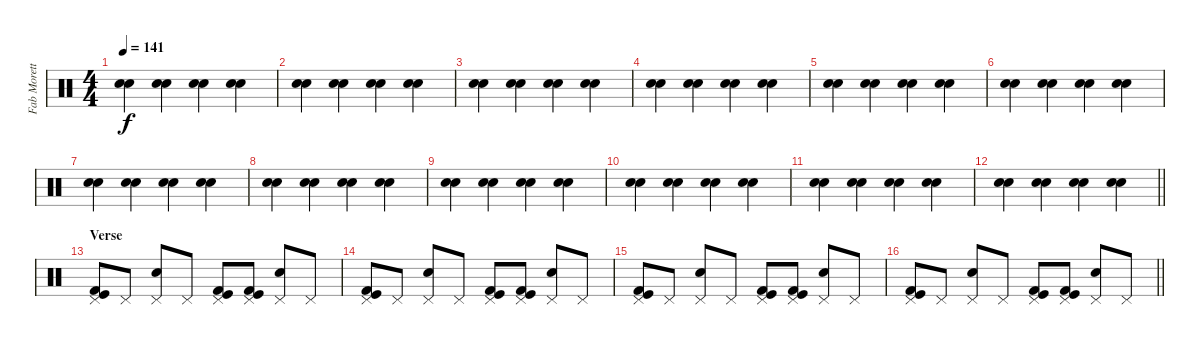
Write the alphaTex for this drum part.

\track ("Fab Moretti - Drums" "Fab Morett") {instrument percussion}
\staff {score}
\articulation defaults
\ts (4 4)
\tempo 141
\clef neutral
\ks c
("Snare (hit) 2" "Snare (hit) 2").4{dy f} ("Snare (hit) 2" "Snare (hit) 2").4 ("Snare (hit) 2" "Snare (hit) 2").4 ("Snare (hit) 2" "Snare (hit) 2").4 |
("Snare (hit) 2" "Snare (hit) 2").4 ("Snare (hit) 2" "Snare (hit) 2").4 ("Snare (hit) 2" "Snare (hit) 2").4 ("Snare (hit) 2" "Snare (hit) 2").4 |
("Snare (hit) 2" "Snare (hit) 2").4 ("Snare (hit) 2" "Snare (hit) 2").4 ("Snare (hit) 2" "Snare (hit) 2").4 ("Snare (hit) 2" "Snare (hit) 2").4 |
("Snare (hit) 2" "Snare (hit) 2").4 ("Snare (hit) 2" "Snare (hit) 2").4 ("Snare (hit) 2" "Snare (hit) 2").4 ("Snare (hit) 2" "Snare (hit) 2").4 |
("Snare (hit) 2" "Snare (hit) 2").4 ("Snare (hit) 2" "Snare (hit) 2").4 ("Snare (hit) 2" "Snare (hit) 2").4 ("Snare (hit) 2" "Snare (hit) 2").4 |
("Snare (hit) 2" "Snare (hit) 2").4 ("Snare (hit) 2" "Snare (hit) 2").4 ("Snare (hit) 2" "Snare (hit) 2").4 ("Snare (hit) 2" "Snare (hit) 2").4 |
("Snare (hit) 2" "Snare (hit) 2").4 ("Snare (hit) 2" "Snare (hit) 2").4 ("Snare (hit) 2" "Snare (hit) 2").4 ("Snare (hit) 2" "Snare (hit) 2").4 |
("Snare (hit) 2" "Snare (hit) 2").4 ("Snare (hit) 2" "Snare (hit) 2").4 ("Snare (hit) 2" "Snare (hit) 2").4 ("Snare (hit) 2" "Snare (hit) 2").4 |
("Snare (hit) 2" "Snare (hit) 2").4 ("Snare (hit) 2" "Snare (hit) 2").4 ("Snare (hit) 2" "Snare (hit) 2").4 ("Snare (hit) 2" "Snare (hit) 2").4 |
("Snare (hit) 2" "Snare (hit) 2").4 ("Snare (hit) 2" "Snare (hit) 2").4 ("Snare (hit) 2" "Snare (hit) 2").4 ("Snare (hit) 2" "Snare (hit) 2").4 |
("Snare (hit) 2" "Snare (hit) 2").4 ("Snare (hit) 2" "Snare (hit) 2").4 ("Snare (hit) 2" "Snare (hit) 2").4 ("Snare (hit) 2" "Snare (hit) 2").4 |
\barLineRight lightlight
("Snare (hit) 2" "Snare (hit) 2").4 ("Snare (hit) 2" "Snare (hit) 2").4 ("Snare (hit) 2" "Snare (hit) 2").4 ("Snare (hit) 2" "Snare (hit) 2").4 |
\section ("" "Verse")
("Pedal Hi-Hat (hit)" "Kick (hit) 2" "Kick (hit)").8 "Pedal Hi-Hat (hit)".8 ("Pedal Hi-Hat (hit)" "Snare (hit) 2").8 "Pedal Hi-Hat (hit)".8 ("Pedal Hi-Hat (hit)" "Kick (hit) 2" "Kick (hit)").8 ("Pedal Hi-Hat (hit)" "Kick (hit) 2" "Kick (hit)").8 ("Pedal Hi-Hat (hit)" "Snare (hit) 2").8 "Pedal Hi-Hat (hit)".8 |
("Pedal Hi-Hat (hit)" "Kick (hit) 2" "Kick (hit)").8 "Pedal Hi-Hat (hit)".8 ("Pedal Hi-Hat (hit)" "Snare (hit) 2").8 "Pedal Hi-Hat (hit)".8 ("Pedal Hi-Hat (hit)" "Kick (hit) 2" "Kick (hit)").8 ("Pedal Hi-Hat (hit)" "Kick (hit) 2" "Kick (hit)").8 ("Pedal Hi-Hat (hit)" "Snare (hit) 2").8 "Pedal Hi-Hat (hit)".8 |
("Pedal Hi-Hat (hit)" "Kick (hit) 2" "Kick (hit)").8 "Pedal Hi-Hat (hit)".8 ("Pedal Hi-Hat (hit)" "Snare (hit) 2").8 "Pedal Hi-Hat (hit)".8 ("Pedal Hi-Hat (hit)" "Kick (hit) 2" "Kick (hit)").8 ("Pedal Hi-Hat (hit)" "Kick (hit) 2" "Kick (hit)").8 ("Pedal Hi-Hat (hit)" "Snare (hit) 2").8 "Pedal Hi-Hat (hit)".8 |
\barLineRight lightlight
("Pedal Hi-Hat (hit)" "Kick (hit) 2" "Kick (hit)").8 "Pedal Hi-Hat (hit)".8 ("Pedal Hi-Hat (hit)" "Snare (hit) 2").8 "Pedal Hi-Hat (hit)".8 ("Pedal Hi-Hat (hit)" "Kick (hit) 2" "Kick (hit)").8 ("Pedal Hi-Hat (hit)" "Kick (hit) 2" "Kick (hit)").8 ("Pedal Hi-Hat (hit)" "Snare (hit) 2").8 "Pedal Hi-Hat (hit)".8
